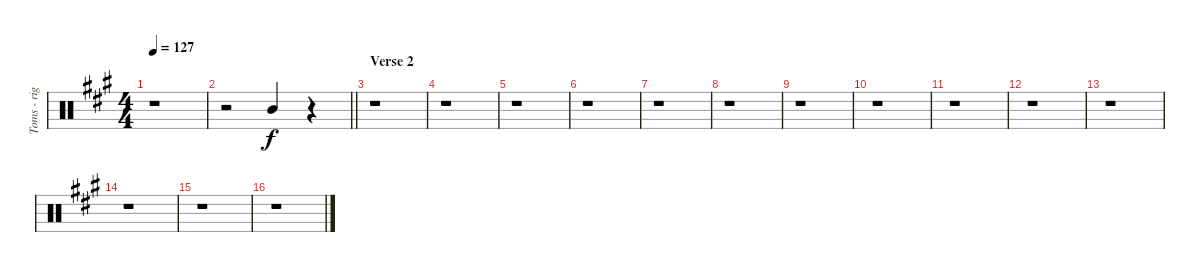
\track ("Toms - right" "Toms - rig") {instrument percussion}
\staff {score}
\articulation defaults
\ts (4 4)
\tempo 127
\clef neutral
\ks a
r.1{dy f} |
\barLineRight lightlight
r.2 "Mid Tom (hit)".4{beam Up} r.4 |
\section ("" "Verse 2")
r.1 |
r.1 |
r.1 |
r.1 |
r.1 |
r.1 |
r.1 |
r.1 |
r.1 |
r.1 |
r.1 |
r.1 |
r.1 |
r.1
